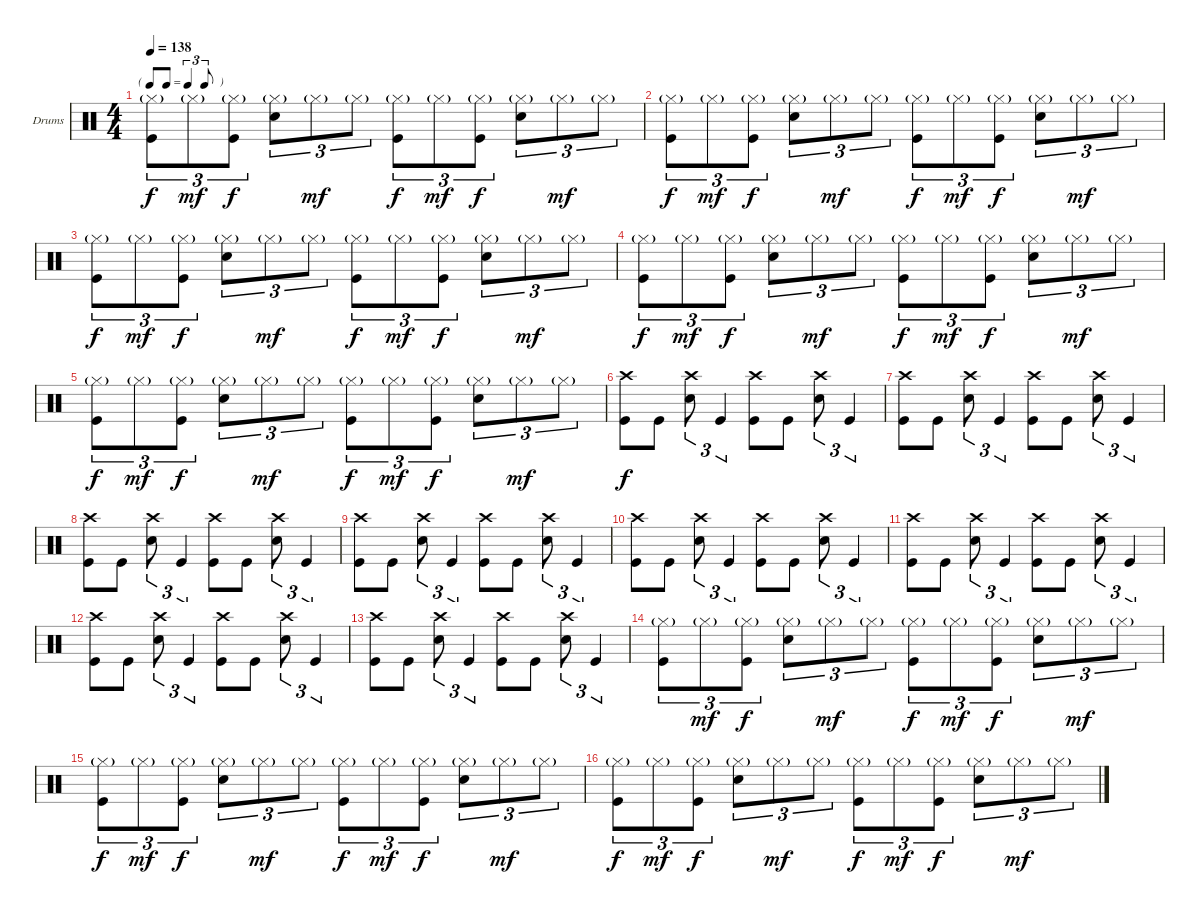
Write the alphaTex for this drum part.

\bracketExtendMode groupsimilarinstruments
\firstSystemTrackNameOrientation horizontal
\otherSystemsTrackNameOrientation horizontal
\track ("Drumkit" "Drums") {instrument percussion}
\staff {score}
\articulation defaults
\ts (4 4)
\tf triplet8th
\tempo 138
\clef neutral
\ks c
("Hi-Hat (closed)"{g} "Kick (hit)").8{tu (3 2) dy f} "Hi-Hat (closed)"{g}.8{tu (3 2) dy mf} ("Hi-Hat (closed)"{g} "Kick (hit)").8{tu (3 2) dy f} ("Hi-Hat (closed)"{g} "Snare (hit) 2").8{tu (3 2)} "Hi-Hat (closed)"{g}.8{tu (3 2) dy mf} "Hi-Hat (closed)"{g}.8{tu (3 2)} ("Hi-Hat (closed)"{g} "Kick (hit)").8{tu (3 2) dy f} "Hi-Hat (closed)"{g}.8{tu (3 2) dy mf} ("Hi-Hat (closed)"{g} "Kick (hit)").8{tu (3 2) dy f} ("Hi-Hat (closed)"{g} "Snare (hit) 2").8{tu (3 2)} "Hi-Hat (closed)"{g}.8{tu (3 2) dy mf} "Hi-Hat (closed)"{g}.8{tu (3 2)} |
("Hi-Hat (closed)"{g} "Kick (hit)").8{tu (3 2) dy f} "Hi-Hat (closed)"{g}.8{tu (3 2) dy mf} ("Hi-Hat (closed)"{g} "Kick (hit)").8{tu (3 2) dy f} ("Hi-Hat (closed)"{g} "Snare (hit) 2").8{tu (3 2)} "Hi-Hat (closed)"{g}.8{tu (3 2) dy mf} "Hi-Hat (closed)"{g}.8{tu (3 2)} ("Hi-Hat (closed)"{g} "Kick (hit)").8{tu (3 2) dy f} "Hi-Hat (closed)"{g}.8{tu (3 2) dy mf} ("Hi-Hat (closed)"{g} "Kick (hit)").8{tu (3 2) dy f} ("Hi-Hat (closed)"{g} "Snare (hit) 2").8{tu (3 2)} "Hi-Hat (closed)"{g}.8{tu (3 2) dy mf} "Hi-Hat (closed)"{g}.8{tu (3 2)} |
("Hi-Hat (closed)"{g} "Kick (hit)").8{tu (3 2) dy f} "Hi-Hat (closed)"{g}.8{tu (3 2) dy mf} ("Hi-Hat (closed)"{g} "Kick (hit)").8{tu (3 2) dy f} ("Hi-Hat (closed)"{g} "Snare (hit) 2").8{tu (3 2)} "Hi-Hat (closed)"{g}.8{tu (3 2) dy mf} "Hi-Hat (closed)"{g}.8{tu (3 2)} ("Hi-Hat (closed)"{g} "Kick (hit)").8{tu (3 2) dy f} "Hi-Hat (closed)"{g}.8{tu (3 2) dy mf} ("Hi-Hat (closed)"{g} "Kick (hit)").8{tu (3 2) dy f} ("Hi-Hat (closed)"{g} "Snare (hit) 2").8{tu (3 2)} "Hi-Hat (closed)"{g}.8{tu (3 2) dy mf} "Hi-Hat (closed)"{g}.8{tu (3 2)} |
("Hi-Hat (closed)"{g} "Kick (hit)").8{tu (3 2) dy f} "Hi-Hat (closed)"{g}.8{tu (3 2) dy mf} ("Hi-Hat (closed)"{g} "Kick (hit)").8{tu (3 2) dy f} ("Hi-Hat (closed)"{g} "Snare (hit) 2").8{tu (3 2)} "Hi-Hat (closed)"{g}.8{tu (3 2) dy mf} "Hi-Hat (closed)"{g}.8{tu (3 2)} ("Hi-Hat (closed)"{g} "Kick (hit)").8{tu (3 2) dy f} "Hi-Hat (closed)"{g}.8{tu (3 2) dy mf} ("Hi-Hat (closed)"{g} "Kick (hit)").8{tu (3 2) dy f} ("Hi-Hat (closed)"{g} "Snare (hit) 2").8{tu (3 2)} "Hi-Hat (closed)"{g}.8{tu (3 2) dy mf} "Hi-Hat (closed)"{g}.8{tu (3 2)} |
("Hi-Hat (closed)"{g} "Kick (hit)").8{tu (3 2) dy f} "Hi-Hat (closed)"{g}.8{tu (3 2) dy mf} ("Hi-Hat (closed)"{g} "Kick (hit)").8{tu (3 2) dy f} ("Hi-Hat (closed)"{g} "Snare (hit) 2").8{tu (3 2)} "Hi-Hat (closed)"{g}.8{tu (3 2) dy mf} "Hi-Hat (closed)"{g}.8{tu (3 2)} ("Hi-Hat (closed)"{g} "Kick (hit)").8{tu (3 2) dy f} "Hi-Hat (closed)"{g}.8{tu (3 2) dy mf} ("Hi-Hat (closed)"{g} "Kick (hit)").8{tu (3 2) dy f} ("Hi-Hat (closed)"{g} "Snare (hit) 2").8{tu (3 2)} "Hi-Hat (closed)"{g}.8{tu (3 2) dy mf} "Hi-Hat (closed)"{g}.8{tu (3 2)} |
("Crash high (hit)" "Kick (hit)").8{dy f} "Kick (hit)".8 ("Crash high (hit)" "Snare (hit) 2").8{tu (3 2)} "Kick (hit)".4{tu (3 2)} ("Crash high (hit)" "Kick (hit)").8 "Kick (hit)".8 ("Crash high (hit)" "Snare (hit) 2").8{tu (3 2)} "Kick (hit)".4{tu (3 2)} |
("Crash high (hit)" "Kick (hit)").8 "Kick (hit)".8 ("Crash high (hit)" "Snare (hit) 2").8{tu (3 2)} "Kick (hit)".4{tu (3 2)} ("Crash high (hit)" "Kick (hit)").8 "Kick (hit)".8 ("Crash high (hit)" "Snare (hit) 2").8{tu (3 2)} "Kick (hit)".4{tu (3 2)} |
("Crash high (hit)" "Kick (hit)").8 "Kick (hit)".8 ("Crash high (hit)" "Snare (hit) 2").8{tu (3 2)} "Kick (hit)".4{tu (3 2)} ("Crash high (hit)" "Kick (hit)").8 "Kick (hit)".8 ("Crash high (hit)" "Snare (hit) 2").8{tu (3 2)} "Kick (hit)".4{tu (3 2)} |
("Crash high (hit)" "Kick (hit)").8 "Kick (hit)".8 ("Crash high (hit)" "Snare (hit) 2").8{tu (3 2)} "Kick (hit)".4{tu (3 2)} ("Crash high (hit)" "Kick (hit)").8 "Kick (hit)".8 ("Crash high (hit)" "Snare (hit) 2").8{tu (3 2)} "Kick (hit)".4{tu (3 2)} |
("Crash high (hit)" "Kick (hit)").8 "Kick (hit)".8 ("Crash high (hit)" "Snare (hit) 2").8{tu (3 2)} "Kick (hit)".4{tu (3 2)} ("Crash high (hit)" "Kick (hit)").8 "Kick (hit)".8 ("Crash high (hit)" "Snare (hit) 2").8{tu (3 2)} "Kick (hit)".4{tu (3 2)} |
("Crash high (hit)" "Kick (hit)").8 "Kick (hit)".8 ("Crash high (hit)" "Snare (hit) 2").8{tu (3 2)} "Kick (hit)".4{tu (3 2)} ("Crash high (hit)" "Kick (hit)").8 "Kick (hit)".8 ("Crash high (hit)" "Snare (hit) 2").8{tu (3 2)} "Kick (hit)".4{tu (3 2)} |
("Crash high (hit)" "Kick (hit)").8 "Kick (hit)".8 ("Crash high (hit)" "Snare (hit) 2").8{tu (3 2)} "Kick (hit)".4{tu (3 2)} ("Crash high (hit)" "Kick (hit)").8 "Kick (hit)".8 ("Crash high (hit)" "Snare (hit) 2").8{tu (3 2)} "Kick (hit)".4{tu (3 2)} |
("Crash high (hit)" "Kick (hit)").8 "Kick (hit)".8 ("Crash high (hit)" "Snare (hit) 2").8{tu (3 2)} "Kick (hit)".4{tu (3 2)} ("Crash high (hit)" "Kick (hit)").8 "Kick (hit)".8 ("Crash high (hit)" "Snare (hit) 2").8{tu (3 2)} "Kick (hit)".4{tu (3 2)} |
("Hi-Hat (closed)"{g} "Kick (hit)").8{tu (3 2)} "Hi-Hat (closed)"{g}.8{tu (3 2) dy mf} ("Hi-Hat (closed)"{g} "Kick (hit)").8{tu (3 2) dy f} ("Hi-Hat (closed)"{g} "Snare (hit) 2").8{tu (3 2)} "Hi-Hat (closed)"{g}.8{tu (3 2) dy mf} "Hi-Hat (closed)"{g}.8{tu (3 2)} ("Hi-Hat (closed)"{g} "Kick (hit)").8{tu (3 2) dy f} "Hi-Hat (closed)"{g}.8{tu (3 2) dy mf} ("Hi-Hat (closed)"{g} "Kick (hit)").8{tu (3 2) dy f} ("Hi-Hat (closed)"{g} "Snare (hit) 2").8{tu (3 2)} "Hi-Hat (closed)"{g}.8{tu (3 2) dy mf} "Hi-Hat (closed)"{g}.8{tu (3 2)} |
("Hi-Hat (closed)"{g} "Kick (hit)").8{tu (3 2) dy f} "Hi-Hat (closed)"{g}.8{tu (3 2) dy mf} ("Hi-Hat (closed)"{g} "Kick (hit)").8{tu (3 2) dy f} ("Hi-Hat (closed)"{g} "Snare (hit) 2").8{tu (3 2)} "Hi-Hat (closed)"{g}.8{tu (3 2) dy mf} "Hi-Hat (closed)"{g}.8{tu (3 2)} ("Hi-Hat (closed)"{g} "Kick (hit)").8{tu (3 2) dy f} "Hi-Hat (closed)"{g}.8{tu (3 2) dy mf} ("Hi-Hat (closed)"{g} "Kick (hit)").8{tu (3 2) dy f} ("Hi-Hat (closed)"{g} "Snare (hit) 2").8{tu (3 2)} "Hi-Hat (closed)"{g}.8{tu (3 2) dy mf} "Hi-Hat (closed)"{g}.8{tu (3 2)} |
("Hi-Hat (closed)"{g} "Kick (hit)").8{tu (3 2) dy f} "Hi-Hat (closed)"{g}.8{tu (3 2) dy mf} ("Hi-Hat (closed)"{g} "Kick (hit)").8{tu (3 2) dy f} ("Hi-Hat (closed)"{g} "Snare (hit) 2").8{tu (3 2)} "Hi-Hat (closed)"{g}.8{tu (3 2) dy mf} "Hi-Hat (closed)"{g}.8{tu (3 2)} ("Hi-Hat (closed)"{g} "Kick (hit)").8{tu (3 2) dy f} "Hi-Hat (closed)"{g}.8{tu (3 2) dy mf} ("Hi-Hat (closed)"{g} "Kick (hit)").8{tu (3 2) dy f} ("Hi-Hat (closed)"{g} "Snare (hit) 2").8{tu (3 2)} "Hi-Hat (closed)"{g}.8{tu (3 2) dy mf} "Hi-Hat (closed)"{g}.8{tu (3 2)}
